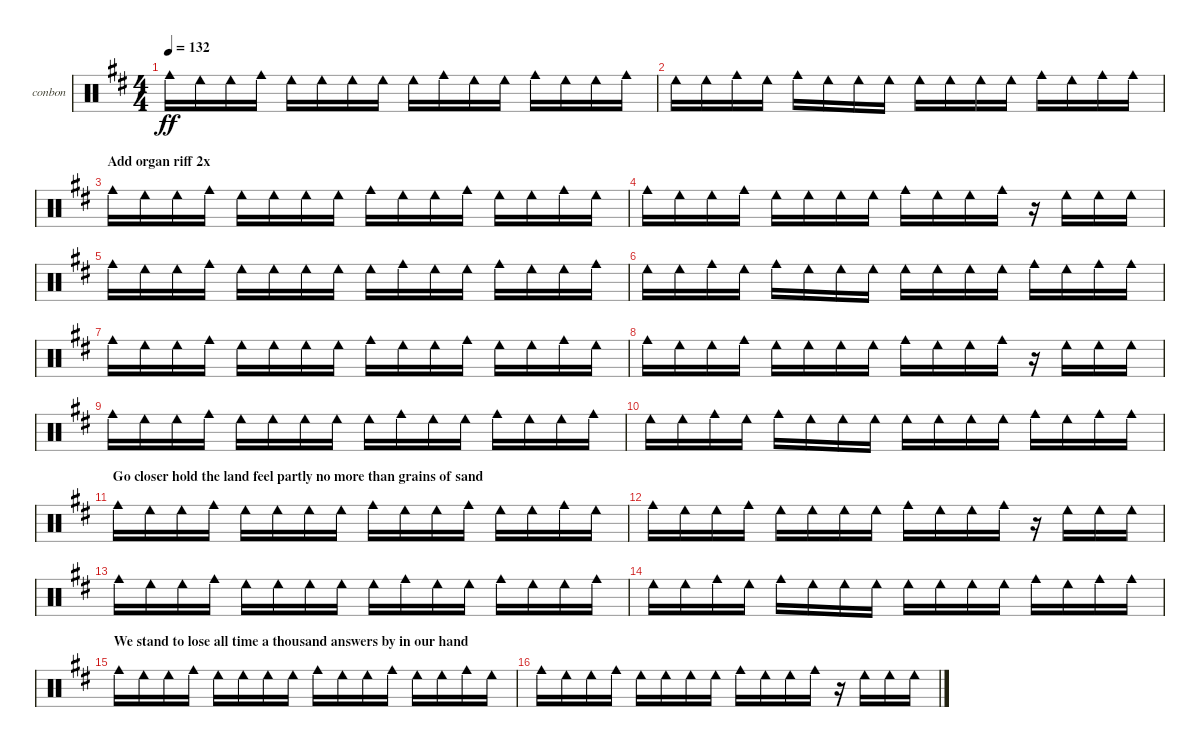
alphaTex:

\bracketExtendMode groupsimilarinstruments
\firstSystemTrackNameOrientation horizontal
\otherSystemsTrackNameOrientation horizontal
\track ("Bongos N Congas" "conbon") {instrument percussion}
\staff {score}
\articulation defaults
\ts (4 4)
\tempo 132
\clef neutral
\ks bminor "Cowbell medium (hit)".16{dy ff} "Cowbell low (hit)".16 "Cowbell low (hit)".16 "Cowbell medium (hit)".16 "Cowbell low (hit)".16 "Cowbell low (hit)".16 "Cowbell low (hit)".16 "Cowbell low (hit)".16 "Cowbell low (hit)".16 "Cowbell medium (hit)".16 "Cowbell low (hit)".16 "Cowbell low (hit)".16 "Cowbell medium (hit)".16 "Cowbell low (hit)".16 "Cowbell low (hit)".16 "Cowbell medium (hit)".16
|
"Cowbell low (hit)".16 "Cowbell low (hit)".16 "Cowbell medium (hit)".16 "Cowbell low (hit)".16 "Cowbell medium (hit)".16 "Cowbell low (hit)".16 "Cowbell low (hit)".16 "Cowbell low (hit)".16 "Cowbell low (hit)".16 "Cowbell low (hit)".16 "Cowbell low (hit)".16 "Cowbell low (hit)".16 "Cowbell medium (hit)".16 "Cowbell low (hit)".16 "Cowbell medium (hit)".16 "Cowbell medium (hit)".16 |
\section ("" "Add organ riff 2x")
"Cowbell medium (hit)".16 "Cowbell low (hit)".16 "Cowbell low (hit)".16 "Cowbell medium (hit)".16 "Cowbell low (hit)".16 "Cowbell low (hit)".16 "Cowbell low (hit)".16 "Cowbell low (hit)".16 "Cowbell medium (hit)".16 "Cowbell low (hit)".16 "Cowbell low (hit)".16 "Cowbell medium (hit)".16 "Cowbell low (hit)".16 "Cowbell low (hit)".16 "Cowbell medium (hit)".16 "Cowbell low (hit)".16 |
"Cowbell medium (hit)".16 "Cowbell low (hit)".16 "Cowbell low (hit)".16 "Cowbell medium (hit)".16 "Cowbell low (hit)".16 "Cowbell low (hit)".16 "Cowbell low (hit)".16 "Cowbell low (hit)".16 "Cowbell medium (hit)".16 "Cowbell low (hit)".16 "Cowbell low (hit)".16 "Cowbell medium (hit)".16 r.16 "Cowbell low (hit)".16 "Cowbell low (hit)".16 "Cowbell low (hit)".16 |
"Cowbell medium (hit)".16 "Cowbell low (hit)".16 "Cowbell low (hit)".16 "Cowbell medium (hit)".16 "Cowbell low (hit)".16 "Cowbell low (hit)".16 "Cowbell low (hit)".16 "Cowbell low (hit)".16 "Cowbell low (hit)".16 "Cowbell medium (hit)".16 "Cowbell low (hit)".16 "Cowbell low (hit)".16 "Cowbell medium (hit)".16 "Cowbell low (hit)".16 "Cowbell low (hit)".16 "Cowbell medium (hit)".16 |
"Cowbell low (hit)".16 "Cowbell low (hit)".16 "Cowbell medium (hit)".16 "Cowbell low (hit)".16 "Cowbell medium (hit)".16 "Cowbell low (hit)".16 "Cowbell low (hit)".16 "Cowbell low (hit)".16 "Cowbell low (hit)".16 "Cowbell low (hit)".16 "Cowbell low (hit)".16 "Cowbell low (hit)".16 "Cowbell medium (hit)".16 "Cowbell low (hit)".16 "Cowbell medium (hit)".16 "Cowbell medium (hit)".16 |
"Cowbell medium (hit)".16 "Cowbell low (hit)".16 "Cowbell low (hit)".16 "Cowbell medium (hit)".16 "Cowbell low (hit)".16 "Cowbell low (hit)".16 "Cowbell low (hit)".16 "Cowbell low (hit)".16 "Cowbell medium (hit)".16 "Cowbell low (hit)".16 "Cowbell low (hit)".16 "Cowbell medium (hit)".16 "Cowbell low (hit)".16 "Cowbell low (hit)".16 "Cowbell medium (hit)".16 "Cowbell low (hit)".16 |
"Cowbell medium (hit)".16 "Cowbell low (hit)".16 "Cowbell low (hit)".16 "Cowbell medium (hit)".16 "Cowbell low (hit)".16 "Cowbell low (hit)".16 "Cowbell low (hit)".16 "Cowbell low (hit)".16 "Cowbell medium (hit)".16 "Cowbell low (hit)".16 "Cowbell low (hit)".16 "Cowbell medium (hit)".16 r.16 "Cowbell low (hit)".16 "Cowbell low (hit)".16 "Cowbell low (hit)".16 |
"Cowbell medium (hit)".16 "Cowbell low (hit)".16 "Cowbell low (hit)".16 "Cowbell medium (hit)".16 "Cowbell low (hit)".16 "Cowbell low (hit)".16 "Cowbell low (hit)".16 "Cowbell low (hit)".16 "Cowbell low (hit)".16 "Cowbell medium (hit)".16 "Cowbell low (hit)".16 "Cowbell low (hit)".16 "Cowbell medium (hit)".16 "Cowbell low (hit)".16 "Cowbell low (hit)".16 "Cowbell medium (hit)".16 |
"Cowbell low (hit)".16 "Cowbell low (hit)".16 "Cowbell medium (hit)".16 "Cowbell low (hit)".16 "Cowbell medium (hit)".16 "Cowbell low (hit)".16 "Cowbell low (hit)".16 "Cowbell low (hit)".16 "Cowbell low (hit)".16 "Cowbell low (hit)".16 "Cowbell low (hit)".16 "Cowbell low (hit)".16 "Cowbell medium (hit)".16 "Cowbell low (hit)".16 "Cowbell medium (hit)".16 "Cowbell medium (hit)".16 |
\section ("" "Go closer hold the land feel partly no more than grains of sand")
"Cowbell medium (hit)".16 "Cowbell low (hit)".16 "Cowbell low (hit)".16 "Cowbell medium (hit)".16 "Cowbell low (hit)".16 "Cowbell low (hit)".16 "Cowbell low (hit)".16 "Cowbell low (hit)".16 "Cowbell medium (hit)".16 "Cowbell low (hit)".16 "Cowbell low (hit)".16 "Cowbell medium (hit)".16 "Cowbell low (hit)".16 "Cowbell low (hit)".16 "Cowbell medium (hit)".16 "Cowbell low (hit)".16 |
"Cowbell medium (hit)".16 "Cowbell low (hit)".16 "Cowbell low (hit)".16 "Cowbell medium (hit)".16 "Cowbell low (hit)".16 "Cowbell low (hit)".16 "Cowbell low (hit)".16 "Cowbell low (hit)".16 "Cowbell medium (hit)".16 "Cowbell low (hit)".16 "Cowbell low (hit)".16 "Cowbell medium (hit)".16 r.16 "Cowbell low (hit)".16 "Cowbell low (hit)".16 "Cowbell low (hit)".16 |
"Cowbell medium (hit)".16 "Cowbell low (hit)".16 "Cowbell low (hit)".16 "Cowbell medium (hit)".16 "Cowbell low (hit)".16 "Cowbell low (hit)".16 "Cowbell low (hit)".16 "Cowbell low (hit)".16 "Cowbell low (hit)".16 "Cowbell medium (hit)".16 "Cowbell low (hit)".16 "Cowbell low (hit)".16 "Cowbell medium (hit)".16 "Cowbell low (hit)".16 "Cowbell low (hit)".16 "Cowbell medium (hit)".16 |
"Cowbell low (hit)".16 "Cowbell low (hit)".16 "Cowbell medium (hit)".16 "Cowbell low (hit)".16 "Cowbell medium (hit)".16 "Cowbell low (hit)".16 "Cowbell low (hit)".16 "Cowbell low (hit)".16 "Cowbell low (hit)".16 "Cowbell low (hit)".16 "Cowbell low (hit)".16 "Cowbell low (hit)".16 "Cowbell medium (hit)".16 "Cowbell low (hit)".16 "Cowbell medium (hit)".16 "Cowbell medium (hit)".16 |
\section ("" "We stand to lose all time a thousand answers by in our hand")
"Cowbell medium (hit)".16 "Cowbell low (hit)".16 "Cowbell low (hit)".16 "Cowbell medium (hit)".16 "Cowbell low (hit)".16 "Cowbell low (hit)".16 "Cowbell low (hit)".16 "Cowbell low (hit)".16 "Cowbell medium (hit)".16 "Cowbell low (hit)".16 "Cowbell low (hit)".16 "Cowbell medium (hit)".16 "Cowbell low (hit)".16 "Cowbell low (hit)".16 "Cowbell medium (hit)".16 "Cowbell low (hit)".16 |
"Cowbell medium (hit)".16 "Cowbell low (hit)".16 "Cowbell low (hit)".16 "Cowbell medium (hit)".16 "Cowbell low (hit)".16 "Cowbell low (hit)".16 "Cowbell low (hit)".16 "Cowbell low (hit)".16 "Cowbell medium (hit)".16 "Cowbell low (hit)".16 "Cowbell low (hit)".16 "Cowbell medium (hit)".16 r.16 "Cowbell low (hit)".16 "Cowbell low (hit)".16 "Cowbell low (hit)".16
